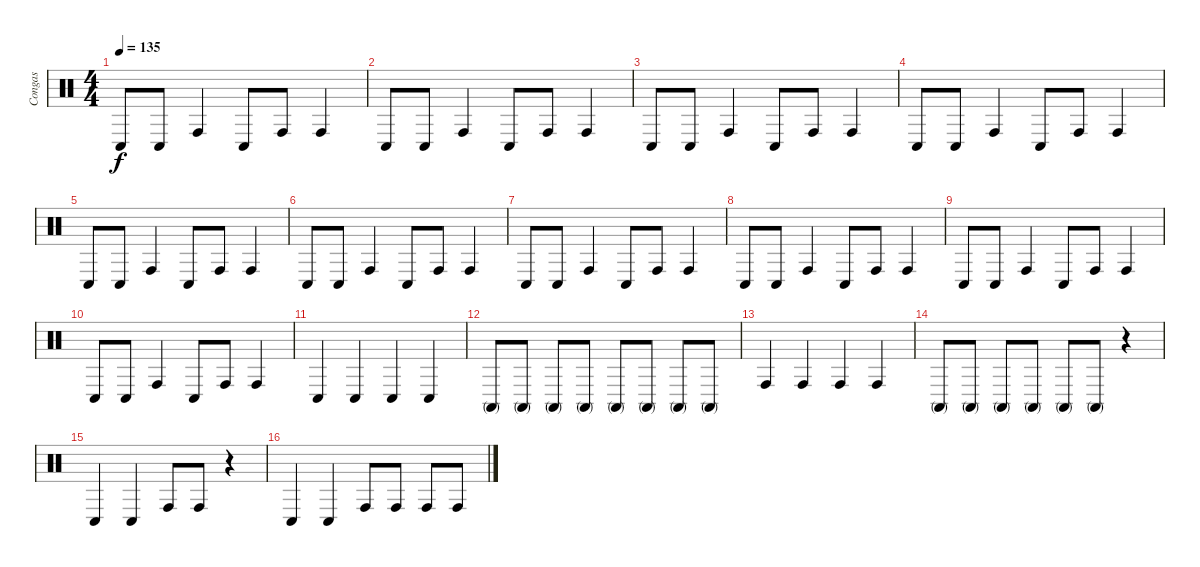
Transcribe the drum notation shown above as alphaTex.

\track ("Congas" "Congas") {instrument percussion}
\staff {score}
\articulation defaults
\ts (4 4)
\tempo 135
\clef neutral
\ks c "Conga low (hit)".8{dy f} "Conga low (hit)".8 "Conga high (hit)".4 "Conga low (hit)".8 "Conga high (hit)".8 "Conga high (hit)".4
|
"Conga low (hit)".8 "Conga low (hit)".8 "Conga high (hit)".4 "Conga low (hit)".8 "Conga high (hit)".8 "Conga high (hit)".4 |
"Conga low (hit)".8 "Conga low (hit)".8 "Conga high (hit)".4 "Conga low (hit)".8 "Conga high (hit)".8 "Conga high (hit)".4 |
"Conga low (hit)".8 "Conga low (hit)".8 "Conga high (hit)".4 "Conga low (hit)".8 "Conga high (hit)".8 "Conga high (hit)".4 |
"Conga low (hit)".8 "Conga low (hit)".8 "Conga high (hit)".4 "Conga low (hit)".8 "Conga high (hit)".8 "Conga high (hit)".4 |
"Conga low (hit)".8 "Conga low (hit)".8 "Conga high (hit)".4 "Conga low (hit)".8 "Conga high (hit)".8 "Conga high (hit)".4 |
"Conga low (hit)".8 "Conga low (hit)".8 "Conga high (hit)".4 "Conga low (hit)".8 "Conga high (hit)".8 "Conga high (hit)".4 |
"Conga low (hit)".8 "Conga low (hit)".8 "Conga high (hit)".4 "Conga low (hit)".8 "Conga high (hit)".8 "Conga high (hit)".4 |
"Conga low (hit)".8 "Conga low (hit)".8 "Conga high (hit)".4 "Conga low (hit)".8 "Conga high (hit)".8 "Conga high (hit)".4 |
"Conga low (hit)".8 "Conga low (hit)".8 "Conga high (hit)".4 "Conga low (hit)".8 "Conga high (hit)".8 "Conga high (hit)".4 |
"Conga low (hit)".4 "Conga low (hit)".4 "Conga low (hit)".4 "Conga low (hit)".4 |
"Conga high (mute)".8 "Conga high (mute)".8 "Conga high (mute)".8 "Conga high (mute)".8 "Conga high (mute)".8 "Conga high (mute)".8 "Conga high (mute)".8 "Conga high (mute)".8 |
"Conga high (hit)".4 "Conga high (hit)".4 "Conga high (hit)".4 "Conga high (hit)".4 |
"Conga high (mute)".8 "Conga high (mute)".8 "Conga high (mute)".8 "Conga high (mute)".8 "Conga high (mute)".8 "Conga high (mute)".8 r.4 |
"Conga low (hit)".4 "Conga low (hit)".4 "Conga high (hit)".8 "Conga high (hit)".8 r.4 |
"Conga low (hit)".4 "Conga low (hit)".4 "Conga high (hit)".8 "Conga high (hit)".8 "Conga high (hit)".8 "Conga high (hit)".8
